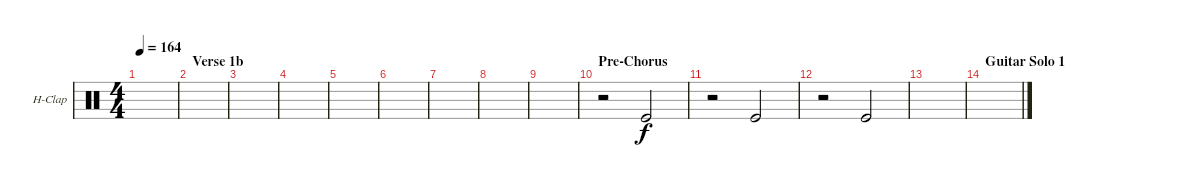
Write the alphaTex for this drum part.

\defaultSystemsLayout 4
\bracketExtendMode groupsimilarinstruments
\firstSystemTrackNameOrientation horizontal
\otherSystemsTrackNameOrientation horizontal
\track ("Hand Clap" "H-Clap") {instrument percussion}
\staff {score}
\articulation defaults
\ts (4 4)
\tempo 164
\clef neutral
\scale
0.333333
\ks c
|
\section ("" "Verse 1b")
\scale
0.333333 |
\scale
0.333333 |
\scale
0.333333 |
\scale
0.333333 |
\scale
0.333333 |
\scale
0.333333 |
\scale
0.333333 |
\scale
0.333333 |
\section ("" "Pre-Chorus")
\scale
0.333333 r.2 "Kick (hit)".2 |
r.2 "Kick (hit)".2 |
r.2 "Kick (hit)".2 |
|
\section ("" "Guitar Solo 1")
